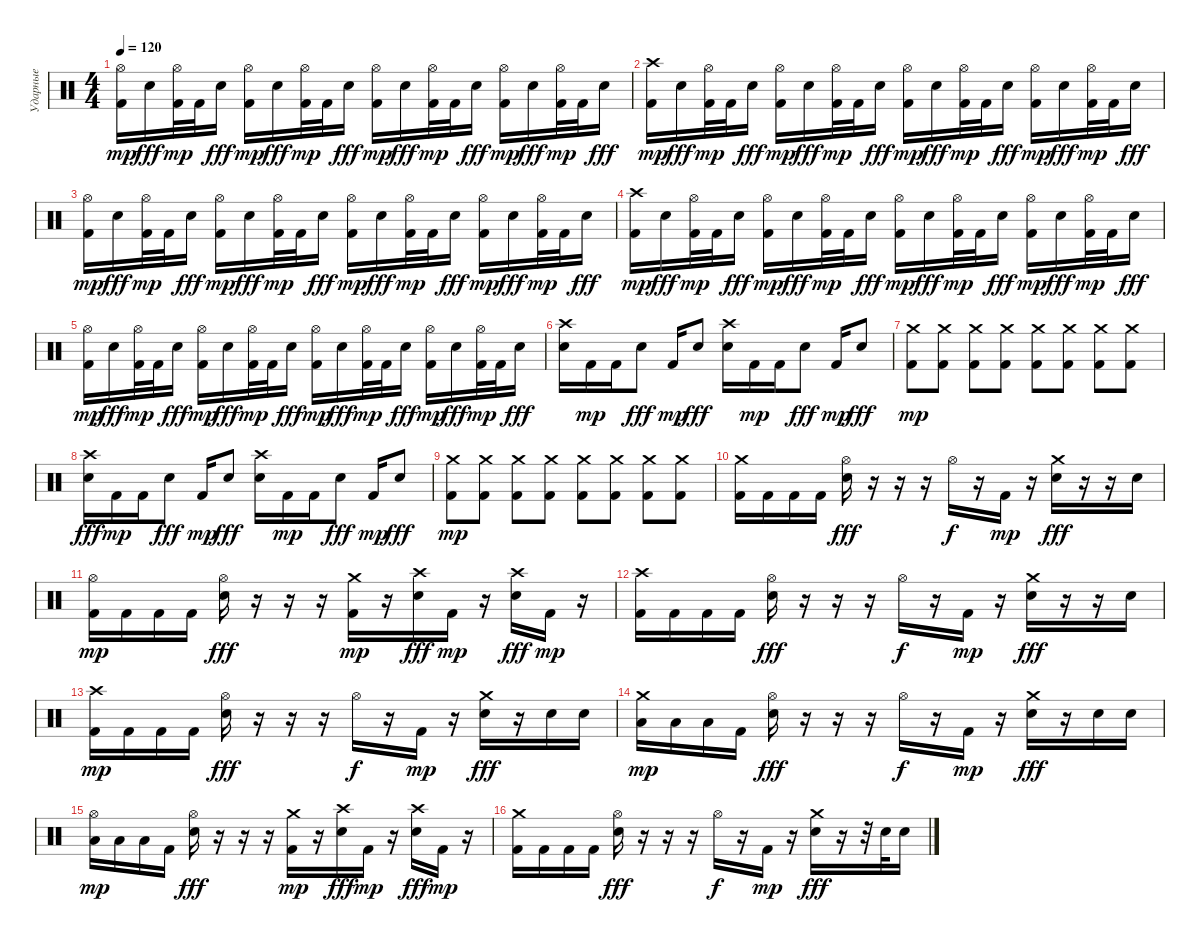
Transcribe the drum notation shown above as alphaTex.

\track ("Ударные" "Ударные") {instrument percussion}
\staff {score}
\articulation defaults
\ts (4 4)
\tempo 120
\clef neutral
\ks c
("Hi-Hat (open)" "Kick (hit) 2").16{dy mp} "Snare (hit) 2".16{dy fff} ("Hi-Hat (open)" "Kick (hit) 2").32{dy mp} "Kick (hit) 2".32 "Snare (hit) 2".16{dy fff} ("Hi-Hat (open)" "Kick (hit) 2").16{dy mp} "Snare (hit) 2".16{dy fff} ("Hi-Hat (open)" "Kick (hit) 2").32{dy mp} "Kick (hit) 2".32 "Snare (hit) 2".16{dy fff} ("Hi-Hat (open)" "Kick (hit) 2").16{dy mp} "Snare (hit) 2".16{dy fff} ("Hi-Hat (open)" "Kick (hit) 2").32{dy mp} "Kick (hit) 2".32 "Snare (hit) 2".16{dy fff} ("Hi-Hat (open)" "Kick (hit) 2").16{dy mp} "Snare (hit) 2".16{dy fff} ("Hi-Hat (open)" "Kick (hit) 2").32{dy mp} "Kick (hit) 2".32 "Snare (hit) 2".16{dy fff} |
("Crash high (hit)" "Kick (hit) 2").16{dy mp} "Snare (hit) 2".16{dy fff} ("Hi-Hat (open)" "Kick (hit) 2").32{dy mp} "Kick (hit) 2".32 "Snare (hit) 2".16{dy fff} ("Hi-Hat (open)" "Kick (hit) 2").16{dy mp} "Snare (hit) 2".16{dy fff} ("Hi-Hat (open)" "Kick (hit) 2").32{dy mp} "Kick (hit) 2".32 "Snare (hit) 2".16{dy fff} ("Hi-Hat (open)" "Kick (hit) 2").16{dy mp} "Snare (hit) 2".16{dy fff} ("Hi-Hat (open)" "Kick (hit) 2").32{dy mp} "Kick (hit) 2".32 "Snare (hit) 2".16{dy fff} ("Hi-Hat (open)" "Kick (hit) 2").16{dy mp} "Snare (hit) 2".16{dy fff} ("Hi-Hat (open)" "Kick (hit) 2").32{dy mp} "Kick (hit) 2".32 "Snare (hit) 2".16{dy fff} |
("Hi-Hat (open)" "Kick (hit) 2").16{dy mp} "Snare (hit) 2".16{dy fff} ("Hi-Hat (open)" "Kick (hit) 2").32{dy mp} "Kick (hit) 2".32 "Snare (hit) 2".16{dy fff} ("Hi-Hat (open)" "Kick (hit) 2").16{dy mp} "Snare (hit) 2".16{dy fff} ("Hi-Hat (open)" "Kick (hit) 2").32{dy mp} "Kick (hit) 2".32 "Snare (hit) 2".16{dy fff} ("Hi-Hat (open)" "Kick (hit) 2").16{dy mp} "Snare (hit) 2".16{dy fff} ("Hi-Hat (open)" "Kick (hit) 2").32{dy mp} "Kick (hit) 2".32 "Snare (hit) 2".16{dy fff} ("Hi-Hat (open)" "Kick (hit) 2").16{dy mp} "Snare (hit) 2".16{dy fff} ("Hi-Hat (open)" "Kick (hit) 2").32{dy mp} "Kick (hit) 2".32 "Snare (hit) 2".16{dy fff} |
("Crash high (hit)" "Kick (hit) 2").16{dy mp} "Snare (hit) 2".16{dy fff} ("Hi-Hat (open)" "Kick (hit) 2").32{dy mp} "Kick (hit) 2".32 "Snare (hit) 2".16{dy fff} ("Hi-Hat (open)" "Kick (hit) 2").16{dy mp} "Snare (hit) 2".16{dy fff} ("Hi-Hat (open)" "Kick (hit) 2").32{dy mp} "Kick (hit) 2".32 "Snare (hit) 2".16{dy fff} ("Hi-Hat (open)" "Kick (hit) 2").16{dy mp} "Snare (hit) 2".16{dy fff} ("Hi-Hat (open)" "Kick (hit) 2").32{dy mp} "Kick (hit) 2".32 "Snare (hit) 2".16{dy fff} ("Hi-Hat (open)" "Kick (hit) 2").16{dy mp} "Snare (hit) 2".16{dy fff} ("Hi-Hat (open)" "Kick (hit) 2").32{dy mp} "Kick (hit) 2".32 "Snare (hit) 2".16{dy fff} |
("Hi-Hat (open)" "Kick (hit) 2").16{dy mp} "Snare (hit) 2".16{dy fff} ("Hi-Hat (open)" "Kick (hit) 2").32{dy mp} "Kick (hit) 2".32 "Snare (hit) 2".16{dy fff} ("Hi-Hat (open)" "Kick (hit) 2").16{dy mp} "Snare (hit) 2".16{dy fff} ("Hi-Hat (open)" "Kick (hit) 2").32{dy mp} "Kick (hit) 2".32 "Snare (hit) 2".16{dy fff} ("Hi-Hat (open)" "Kick (hit) 2").16{dy mp} "Snare (hit) 2".16{dy fff} ("Hi-Hat (open)" "Kick (hit) 2").32{dy mp} "Kick (hit) 2".32 "Snare (hit) 2".16{dy fff} ("Hi-Hat (open)" "Kick (hit) 2").16{dy mp} "Snare (hit) 2".16{dy fff} ("Hi-Hat (open)" "Kick (hit) 2").32{dy mp} "Kick (hit) 2".32 "Snare (hit) 2".16{dy fff} |
("Crash high (hit)" "Snare (hit) 2").16 "Kick (hit) 2".16{dy mp} "Kick (hit) 2".16 "Snare (hit) 2".8{dy fff} "Kick (hit) 2".16{dy mp} "Snare (hit) 2".8{dy fff} ("Crash high (hit)" "Snare (hit) 2").16 "Kick (hit) 2".16{dy mp} "Kick (hit) 2".16 "Snare (hit) 2".8{dy fff} "Kick (hit) 2".16{dy mp} "Snare (hit) 2".8{dy fff} |
("Crash medium (hit)" "Kick (hit) 2").8{dy mp} ("Crash medium (hit)" "Kick (hit) 2").8 ("Crash medium (hit)" "Kick (hit) 2").8 ("Crash medium (hit)" "Kick (hit) 2").8 ("Crash medium (hit)" "Kick (hit) 2").8 ("Crash medium (hit)" "Kick (hit) 2").8 ("Crash medium (hit)" "Kick (hit) 2").8 ("Crash medium (hit)" "Kick (hit) 2").8 |
("Crash high (hit)" "Snare (hit) 2").16{dy fff} "Kick (hit) 2".16{dy mp} "Kick (hit) 2".16 "Snare (hit) 2".8{dy fff} "Kick (hit) 2".16{dy mp} "Snare (hit) 2".8{dy fff} ("Crash high (hit)" "Snare (hit) 2").16 "Kick (hit) 2".16{dy mp} "Kick (hit) 2".16 "Snare (hit) 2".8{dy fff} "Kick (hit) 2".16{dy mp} "Snare (hit) 2".8{dy fff} |
("Crash medium (hit)" "Kick (hit) 2").8{dy mp} ("Crash medium (hit)" "Kick (hit) 2").8 ("Crash medium (hit)" "Kick (hit) 2").8 ("Crash medium (hit)" "Kick (hit) 2").8 ("Crash medium (hit)" "Kick (hit) 2").8 ("Crash medium (hit)" "Kick (hit) 2").8 ("Crash medium (hit)" "Kick (hit) 2").8 ("Crash medium (hit)" "Kick (hit) 2").8 |
("Crash medium (hit)" "Kick (hit) 2").16 "Kick (hit) 2".16 "Kick (hit) 2".16 "Kick (hit) 2".16 ("Hi-Hat (open)" "Snare (hit) 2").16{dy fff} r.16 r.16 r.16 "Hi-Hat (open)".16{dy f} r.16 "Kick (hit) 2".16{dy mp} r.16 ("Crash medium (hit)" "Snare (hit) 2").16{dy fff} r.16 r.16 "Snare (hit) 2".16 |
("Hi-Hat (open)" "Kick (hit) 2").16{dy mp} "Kick (hit) 2".16 "Kick (hit) 2".16 "Kick (hit) 2".16 ("Hi-Hat (open)" "Snare (hit) 2").16{dy fff} r.16 r.16 r.16 ("Crash medium (hit)" "Kick (hit) 2").16{dy mp} r.16 ("Crash high (hit)" "Snare (hit) 2").16{dy fff} "Kick (hit) 2".16{dy mp} r.16 ("Crash high (hit)" "Snare (hit) 2").16{dy fff} "Kick (hit) 2".16{dy mp} r.16 |
("Crash high (hit)" "Kick (hit) 2").16 "Kick (hit) 2".16 "Kick (hit) 2".16 "Kick (hit) 2".16 ("Hi-Hat (open)" "Snare (hit) 2").16{dy fff} r.16 r.16 r.16 "Hi-Hat (open)".16{dy f} r.16 "Kick (hit) 2".16{dy mp} r.16 ("Crash medium (hit)" "Snare (hit) 2").16{dy fff} r.16 r.16 "Snare (hit) 2".16 |
("Crash high (hit)" "Kick (hit) 2").16{dy mp} "Kick (hit) 2".16 "Kick (hit) 2".16 "Kick (hit) 2".16 ("Hi-Hat (open)" "Snare (hit) 2").16{dy fff} r.16 r.16 r.16 "Hi-Hat (open)".16{dy f} r.16 "Kick (hit) 2".16{dy mp} r.16 ("Crash medium (hit)" "Snare (hit) 2").16{dy fff} r.16 "Snare (hit) 2".16 "Snare (hit) 2".16 |
("Crash medium (hit)" "Low Tom (hit)").16{dy mp} "Low Tom (hit)".16 "Low Tom (hit)".16 "Kick (hit) 2".16 ("Hi-Hat (open)" "Snare (hit) 2").16{dy fff} r.16 r.16 r.16 "Hi-Hat (open)".16{dy f} r.16 "Kick (hit) 2".16{dy mp} r.16 ("Crash medium (hit)" "Snare (hit) 2").16{dy fff} r.16 "Snare (hit) 2".16 "Snare (hit) 2".16 |
("Hi-Hat (open)" "Low Tom (hit)").16{dy mp} "Low Tom (hit)".16 "Low Tom (hit)".16 "Kick (hit) 2".16 ("Hi-Hat (open)" "Snare (hit) 2").16{dy fff} r.16 r.16 r.16 ("Crash medium (hit)" "Kick (hit) 2").16{dy mp} r.16 ("Crash high (hit)" "Snare (hit) 2").16{dy fff} "Kick (hit) 2".16{dy mp} r.16 ("Crash high (hit)" "Snare (hit) 2").16{dy fff} "Kick (hit) 2".16{dy mp} r.16 |
("Crash medium (hit)" "Kick (hit) 2").16 "Kick (hit) 2".16 "Kick (hit) 2".16 "Kick (hit) 2".16 ("Hi-Hat (open)" "Snare (hit) 2").16{dy fff} r.16 r.16 r.16 "Hi-Hat (open)".16{dy f} r.16 "Kick (hit) 2".16{dy mp} r.16 ("Crash medium (hit)" "Snare (hit) 2").16{dy fff} r.16 r.32 "Snare (hit) 2".32 "Snare (hit) 2".16
